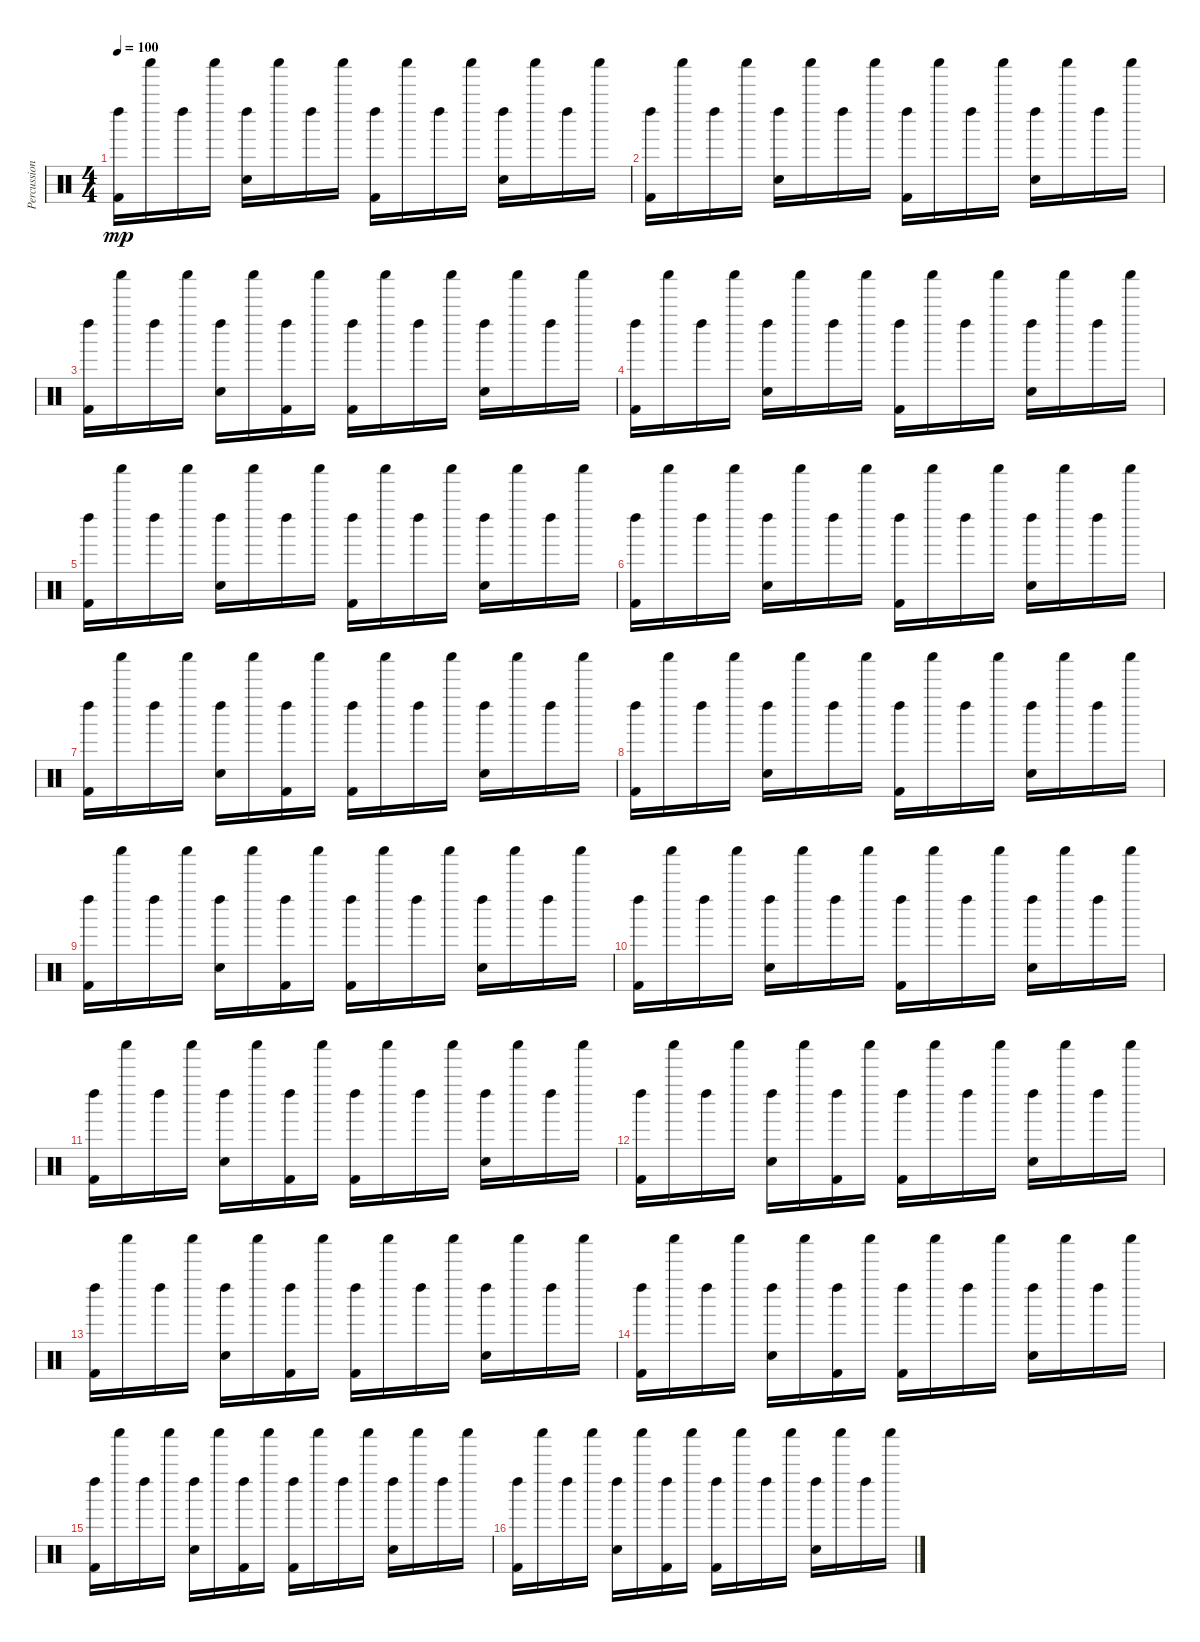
\track ("Percussion" "Percussion") {instrument percussion}
\staff {score}
\articulation defaults
\ts (4 4)
\tempo 100
\clef neutral
\ks c
("Kick (hit) 2" "Left Maraca (hit)").16{dy mp} "Shaker (hit)".16 "Left Maraca (hit)".16 "Shaker (hit)".16 ("Snare (hit) 2" "Left Maraca (hit)").16 "Shaker (hit)".16 "Left Maraca (hit)".16 "Shaker (hit)".16 ("Kick (hit) 2" "Left Maraca (hit)").16 "Shaker (hit)".16 "Left Maraca (hit)".16 "Shaker (hit)".16 ("Snare (hit) 2" "Left Maraca (hit)").16 "Shaker (hit)".16 "Left Maraca (hit)".16 "Shaker (hit)".16 |
("Kick (hit) 2" "Left Maraca (hit)").16 "Shaker (hit)".16 "Left Maraca (hit)".16 "Shaker (hit)".16 ("Snare (hit) 2" "Left Maraca (hit)").16 "Shaker (hit)".16 "Left Maraca (hit)".16 "Shaker (hit)".16 ("Kick (hit) 2" "Left Maraca (hit)").16 "Shaker (hit)".16 "Left Maraca (hit)".16 "Shaker (hit)".16 ("Snare (hit) 2" "Left Maraca (hit)").16 "Shaker (hit)".16 "Left Maraca (hit)".16 "Shaker (hit)".16 |
("Kick (hit) 2" "Left Maraca (hit)").16 "Shaker (hit)".16 "Left Maraca (hit)".16 "Shaker (hit)".16 ("Snare (hit) 2" "Left Maraca (hit)").16 "Shaker (hit)".16 ("Kick (hit) 2" "Left Maraca (hit)").16 "Shaker (hit)".16 ("Kick (hit) 2" "Left Maraca (hit)").16 "Shaker (hit)".16 "Left Maraca (hit)".16 "Shaker (hit)".16 ("Snare (hit) 2" "Left Maraca (hit)").16 "Shaker (hit)".16 "Left Maraca (hit)".16 "Shaker (hit)".16 |
("Kick (hit) 2" "Left Maraca (hit)").16 "Shaker (hit)".16 "Left Maraca (hit)".16 "Shaker (hit)".16 ("Snare (hit) 2" "Left Maraca (hit)").16 "Shaker (hit)".16 "Left Maraca (hit)".16 "Shaker (hit)".16 ("Kick (hit) 2" "Left Maraca (hit)").16 "Shaker (hit)".16 "Left Maraca (hit)".16 "Shaker (hit)".16 ("Snare (hit) 2" "Left Maraca (hit)").16 "Shaker (hit)".16 "Left Maraca (hit)".16 "Shaker (hit)".16 |
("Kick (hit) 2" "Left Maraca (hit)").16 "Shaker (hit)".16 "Left Maraca (hit)".16 "Shaker (hit)".16 ("Snare (hit) 2" "Left Maraca (hit)").16 "Shaker (hit)".16 "Left Maraca (hit)".16 "Shaker (hit)".16 ("Kick (hit) 2" "Left Maraca (hit)").16 "Shaker (hit)".16 "Left Maraca (hit)".16 "Shaker (hit)".16 ("Snare (hit) 2" "Left Maraca (hit)").16 "Shaker (hit)".16 "Left Maraca (hit)".16 "Shaker (hit)".16 |
("Kick (hit) 2" "Left Maraca (hit)").16 "Shaker (hit)".16 "Left Maraca (hit)".16 "Shaker (hit)".16 ("Snare (hit) 2" "Left Maraca (hit)").16 "Shaker (hit)".16 "Left Maraca (hit)".16 "Shaker (hit)".16 ("Kick (hit) 2" "Left Maraca (hit)").16 "Shaker (hit)".16 "Left Maraca (hit)".16 "Shaker (hit)".16 ("Snare (hit) 2" "Left Maraca (hit)").16 "Shaker (hit)".16 "Left Maraca (hit)".16 "Shaker (hit)".16 |
("Kick (hit) 2" "Left Maraca (hit)").16 "Shaker (hit)".16 "Left Maraca (hit)".16 "Shaker (hit)".16 ("Snare (hit) 2" "Left Maraca (hit)").16 "Shaker (hit)".16 ("Kick (hit) 2" "Left Maraca (hit)").16 "Shaker (hit)".16 ("Kick (hit) 2" "Left Maraca (hit)").16 "Shaker (hit)".16 "Left Maraca (hit)".16 "Shaker (hit)".16 ("Snare (hit) 2" "Left Maraca (hit)").16 "Shaker (hit)".16 "Left Maraca (hit)".16 "Shaker (hit)".16 |
("Kick (hit) 2" "Left Maraca (hit)").16 "Shaker (hit)".16 "Left Maraca (hit)".16 "Shaker (hit)".16 ("Snare (hit) 2" "Left Maraca (hit)").16 "Shaker (hit)".16 "Left Maraca (hit)".16 "Shaker (hit)".16 ("Kick (hit) 2" "Left Maraca (hit)").16 "Shaker (hit)".16 "Left Maraca (hit)".16 "Shaker (hit)".16 ("Snare (hit) 2" "Left Maraca (hit)").16 "Shaker (hit)".16 "Left Maraca (hit)".16 "Shaker (hit)".16 |
("Kick (hit) 2" "Left Maraca (hit)").16 "Shaker (hit)".16 "Left Maraca (hit)".16 "Shaker (hit)".16 ("Snare (hit) 2" "Left Maraca (hit)").16 "Shaker (hit)".16 ("Kick (hit) 2" "Left Maraca (hit)").16 "Shaker (hit)".16 ("Kick (hit) 2" "Left Maraca (hit)").16 "Shaker (hit)".16 "Left Maraca (hit)".16 "Shaker (hit)".16 ("Snare (hit) 2" "Left Maraca (hit)").16 "Shaker (hit)".16 "Left Maraca (hit)".16 "Shaker (hit)".16 |
("Kick (hit) 2" "Left Maraca (hit)").16 "Shaker (hit)".16 "Left Maraca (hit)".16 "Shaker (hit)".16 ("Snare (hit) 2" "Left Maraca (hit)").16 "Shaker (hit)".16 "Left Maraca (hit)".16 "Shaker (hit)".16 ("Kick (hit) 2" "Left Maraca (hit)").16 "Shaker (hit)".16 "Left Maraca (hit)".16 "Shaker (hit)".16 ("Snare (hit) 2" "Left Maraca (hit)").16 "Shaker (hit)".16 "Left Maraca (hit)".16 "Shaker (hit)".16 |
("Kick (hit) 2" "Left Maraca (hit)").16 "Shaker (hit)".16 "Left Maraca (hit)".16 "Shaker (hit)".16 ("Snare (hit) 2" "Left Maraca (hit)").16 "Shaker (hit)".16 ("Kick (hit) 2" "Left Maraca (hit)").16 "Shaker (hit)".16 ("Kick (hit) 2" "Left Maraca (hit)").16 "Shaker (hit)".16 "Left Maraca (hit)".16 "Shaker (hit)".16 ("Snare (hit) 2" "Left Maraca (hit)").16 "Shaker (hit)".16 "Left Maraca (hit)".16 "Shaker (hit)".16 |
("Kick (hit) 2" "Left Maraca (hit)").16 "Shaker (hit)".16 "Left Maraca (hit)".16 "Shaker (hit)".16 ("Snare (hit) 2" "Left Maraca (hit)").16 "Shaker (hit)".16 ("Kick (hit) 2" "Left Maraca (hit)").16 "Shaker (hit)".16 ("Kick (hit) 2" "Left Maraca (hit)").16 "Shaker (hit)".16 "Left Maraca (hit)".16 "Shaker (hit)".16 ("Snare (hit) 2" "Left Maraca (hit)").16 "Shaker (hit)".16 "Left Maraca (hit)".16 "Shaker (hit)".16 |
("Kick (hit) 2" "Left Maraca (hit)").16 "Shaker (hit)".16 "Left Maraca (hit)".16 "Shaker (hit)".16 ("Snare (hit) 2" "Left Maraca (hit)").16 "Shaker (hit)".16 ("Kick (hit) 2" "Left Maraca (hit)").16 "Shaker (hit)".16 ("Kick (hit) 2" "Left Maraca (hit)").16 "Shaker (hit)".16 "Left Maraca (hit)".16 "Shaker (hit)".16 ("Snare (hit) 2" "Left Maraca (hit)").16 "Shaker (hit)".16 "Left Maraca (hit)".16 "Shaker (hit)".16 |
("Kick (hit) 2" "Left Maraca (hit)").16 "Shaker (hit)".16 "Left Maraca (hit)".16 "Shaker (hit)".16 ("Snare (hit) 2" "Left Maraca (hit)").16 "Shaker (hit)".16 ("Kick (hit) 2" "Left Maraca (hit)").16 "Shaker (hit)".16 ("Kick (hit) 2" "Left Maraca (hit)").16 "Shaker (hit)".16 "Left Maraca (hit)".16 "Shaker (hit)".16 ("Snare (hit) 2" "Left Maraca (hit)").16 "Shaker (hit)".16 "Left Maraca (hit)".16 "Shaker (hit)".16 |
("Kick (hit) 2" "Left Maraca (hit)").16 "Shaker (hit)".16 "Left Maraca (hit)".16 "Shaker (hit)".16 ("Snare (hit) 2" "Left Maraca (hit)").16 "Shaker (hit)".16 ("Kick (hit) 2" "Left Maraca (hit)").16 "Shaker (hit)".16 ("Kick (hit) 2" "Left Maraca (hit)").16 "Shaker (hit)".16 "Left Maraca (hit)".16 "Shaker (hit)".16 ("Snare (hit) 2" "Left Maraca (hit)").16 "Shaker (hit)".16 "Left Maraca (hit)".16 "Shaker (hit)".16 |
("Kick (hit) 2" "Left Maraca (hit)").16 "Shaker (hit)".16 "Left Maraca (hit)".16 "Shaker (hit)".16 ("Snare (hit) 2" "Left Maraca (hit)").16 "Shaker (hit)".16 ("Kick (hit) 2" "Left Maraca (hit)").16 "Shaker (hit)".16 ("Kick (hit) 2" "Left Maraca (hit)").16 "Shaker (hit)".16 "Left Maraca (hit)".16 "Shaker (hit)".16 ("Snare (hit) 2" "Left Maraca (hit)").16 "Shaker (hit)".16 "Left Maraca (hit)".16 "Shaker (hit)".16
